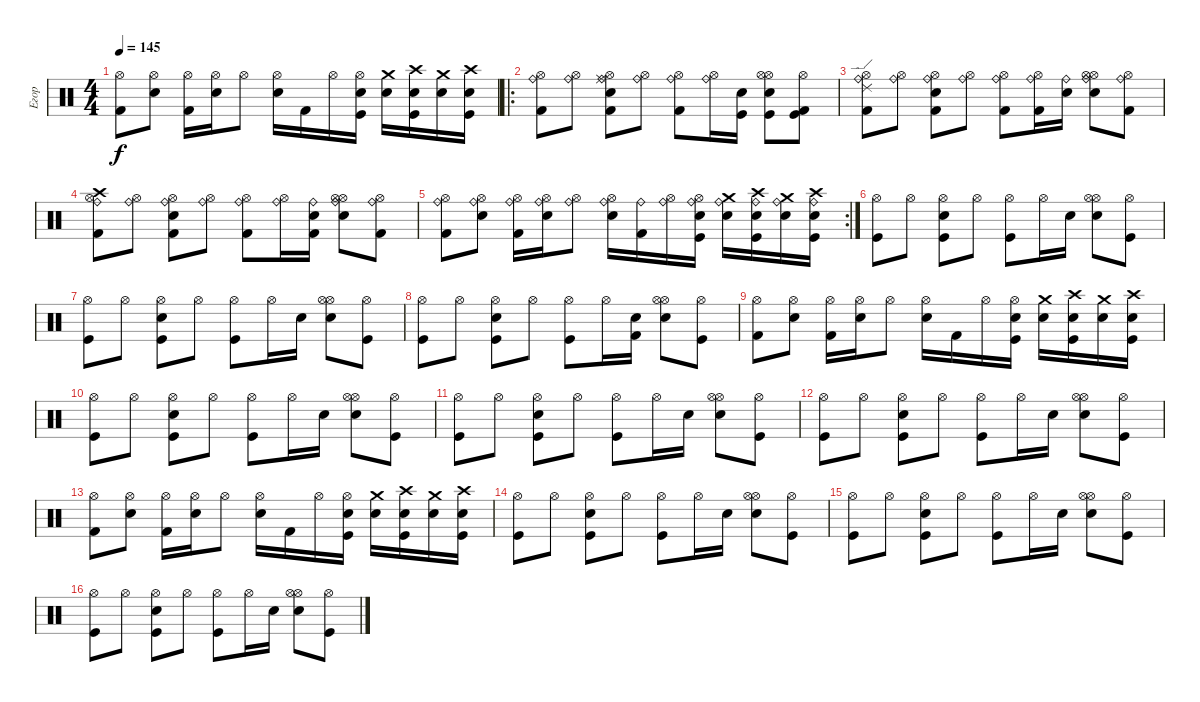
\track ("Егор" "Егор") {instrument percussion}
\staff {score}
\articulation defaults
\ts (4 4)
\tempo 145
\clef neutral
\ks c
("Hi-Hat (open)" "Kick (hit) 2").8{dy f} ("Hi-Hat (open)" "Electric Snare (hit)").8 ("Hi-Hat (open)" "Kick (hit) 2").16 ("Hi-Hat (open)" "Electric Snare (hit)").16 "Hi-Hat (open)".8 ("Hi-Hat (open)" "Electric Snare (hit)").16 "Kick (hit) 2".16 "Hi-Hat (open)".16 ("Hi-Hat (open)" "Electric Snare (hit)" "Kick (hit)").16 ("Crash medium (hit)" "Electric Snare (hit)").16 ("Crash high (hit)" "Electric Snare (hit)" "Kick (hit)").16 ("Crash medium (hit)" "Electric Snare (hit)").16 ("Crash high (hit)" "Electric Snare (hit)" "Kick (hit)").16 |
\ro
("Hi-Hat (open)" "Ride (bell)" "Kick (hit) 2").8 ("Hi-Hat (open)" "Ride (bell)").8 ("Hi-Hat (open)" "Ride (bell)" "Ride (middle)" "Electric Snare (hit)" "Kick (hit) 2").8 ("Hi-Hat (open)" "Ride (bell)").8 ("Hi-Hat (open)" "Ride (bell)" "Kick (hit) 2").8 ("Hi-Hat (open)" "Ride (bell)").16 ("Kick (hit)" "Electric Snare (hit)").16 ("Hi-Hat (open)" "Kick (hit)" "Electric Snare (hit)" "Hi-Hat (open)").8 ("Hi-Hat (open)" "Kick (hit)" "Kick (hit) 2").8 |
("Hi-Hat (open)" "Ride (edge) 2" "Ride (bell)" "Kick (hit) 2").8 ("Hi-Hat (open)" "Ride (bell)").8 ("Hi-Hat (open)" "Electric Snare (hit)" "Ride (bell)" "Kick (hit) 2").8 ("Hi-Hat (open)" "Ride (bell)").8 ("Hi-Hat (open)" "Ride (bell)" "Kick (hit) 2").8 ("Hi-Hat (open)" "Ride (bell)" "Kick (hit) 2").16 ("Ride (bell)" "Electric Snare (hit)").16 ("Hi-Hat (open)" "Ride (bell)" "Electric Snare (hit)" "Hi-Hat (open)").8 ("Hi-Hat (open)" "Ride (bell)" "Kick (hit) 2").8 |
("Hi-Hat (open)" "Crash high (hit)" "Ride (bell)" "Kick (hit) 2").8 ("Hi-Hat (open)" "Ride (bell)").8 ("Hi-Hat (open)" "Electric Snare (hit)" "Ride (bell)" "Kick (hit) 2").8 ("Hi-Hat (open)" "Ride (bell)").8 ("Hi-Hat (open)" "Ride (bell)" "Kick (hit) 2").8 ("Hi-Hat (open)" "Ride (bell)").16 ("Ride (bell)" "Electric Snare (hit)" "Kick (hit) 2").16 ("Hi-Hat (open)" "Ride (bell)" "Electric Snare (hit)" "Hi-Hat (open)").8 ("Hi-Hat (open)" "Ride (bell)" "Kick (hit) 2").8 |
\rc 2
("Hi-Hat (open)" "Ride (bell)" "Kick (hit) 2").8 ("Hi-Hat (open)" "Ride (bell)" "Electric Snare (hit)").8 ("Hi-Hat (open)" "Ride (bell)" "Kick (hit) 2").16 ("Hi-Hat (open)" "Ride (bell)" "Electric Snare (hit)").16 ("Hi-Hat (open)" "Ride (bell)").8 ("Hi-Hat (open)" "Ride (bell)" "Electric Snare (hit)").16 ("Ride (bell)" "Kick (hit) 2").16 ("Hi-Hat (open)" "Ride (bell)").16 ("Hi-Hat (open)" "Ride (bell)" "Electric Snare (hit)" "Kick (hit)").16 ("Crash medium (hit)" "Ride (bell)" "Electric Snare (hit)").16 ("Crash high (hit)" "Ride (bell)" "Electric Snare (hit)" "Kick (hit)").16 ("Crash medium (hit)" "Ride (bell)" "Electric Snare (hit)").16 ("Crash high (hit)" "Ride (bell)" "Electric Snare (hit)" "Kick (hit)").16 |
("Hi-Hat (open)" "Kick (hit)").8 "Hi-Hat (open)".8 ("Hi-Hat (open)" "Electric Snare (hit)" "Kick (hit)").8 "Hi-Hat (open)".8 ("Hi-Hat (open)" "Kick (hit)").8 "Hi-Hat (open)".16 "Electric Snare (hit)".16 ("Hi-Hat (open)" "Electric Snare (hit)" "Hi-Hat (open)").8 ("Hi-Hat (open)" "Kick (hit)").8 |
("Hi-Hat (open)" "Kick (hit)").8 "Hi-Hat (open)".8 ("Hi-Hat (open)" "Electric Snare (hit)" "Kick (hit)").8 "Hi-Hat (open)".8 ("Hi-Hat (open)" "Kick (hit)").8 "Hi-Hat (open)".16 "Electric Snare (hit)".16 ("Hi-Hat (open)" "Electric Snare (hit)" "Hi-Hat (open)").8 ("Hi-Hat (open)" "Kick (hit)").8 |
("Hi-Hat (open)" "Kick (hit)").8 "Hi-Hat (open)".8 ("Hi-Hat (open)" "Electric Snare (hit)" "Kick (hit)").8 "Hi-Hat (open)".8 ("Hi-Hat (open)" "Kick (hit)").8 "Hi-Hat (open)".16 ("Electric Snare (hit)" "Kick (hit) 2").16 ("Hi-Hat (open)" "Electric Snare (hit)" "Hi-Hat (open)").8 ("Hi-Hat (open)" "Kick (hit)").8 |
("Hi-Hat (open)" "Kick (hit) 2").8 ("Hi-Hat (open)" "Electric Snare (hit)").8 ("Hi-Hat (open)" "Kick (hit) 2").16 ("Hi-Hat (open)" "Electric Snare (hit)").16 "Hi-Hat (open)".8 ("Hi-Hat (open)" "Electric Snare (hit)").16 "Kick (hit) 2".16 "Hi-Hat (open)".16 ("Hi-Hat (open)" "Electric Snare (hit)" "Kick (hit)").16 ("Crash medium (hit)" "Electric Snare (hit)").16 ("Crash high (hit)" "Electric Snare (hit)" "Kick (hit)").16 ("Crash medium (hit)" "Electric Snare (hit)").16 ("Crash high (hit)" "Electric Snare (hit)" "Kick (hit)").16 |
("Hi-Hat (open)" "Kick (hit)").8 "Hi-Hat (open)".8 ("Hi-Hat (open)" "Electric Snare (hit)" "Kick (hit)").8 "Hi-Hat (open)".8 ("Hi-Hat (open)" "Kick (hit)").8 "Hi-Hat (open)".16 "Electric Snare (hit)".16 ("Hi-Hat (open)" "Electric Snare (hit)" "Hi-Hat (open)").8 ("Hi-Hat (open)" "Kick (hit)").8 |
("Hi-Hat (open)" "Kick (hit)").8 "Hi-Hat (open)".8 ("Hi-Hat (open)" "Electric Snare (hit)" "Kick (hit)").8 "Hi-Hat (open)".8 ("Hi-Hat (open)" "Kick (hit)").8 "Hi-Hat (open)".16 "Electric Snare (hit)".16 ("Hi-Hat (open)" "Electric Snare (hit)" "Hi-Hat (open)").8 ("Hi-Hat (open)" "Kick (hit)").8 |
("Hi-Hat (open)" "Kick (hit)").8 "Hi-Hat (open)".8 ("Hi-Hat (open)" "Electric Snare (hit)" "Kick (hit)").8 "Hi-Hat (open)".8 ("Hi-Hat (open)" "Kick (hit)").8 "Hi-Hat (open)".16 "Electric Snare (hit)".16 ("Hi-Hat (open)" "Electric Snare (hit)" "Hi-Hat (open)").8 ("Hi-Hat (open)" "Kick (hit)").8 |
("Hi-Hat (open)" "Kick (hit) 2").8 ("Hi-Hat (open)" "Electric Snare (hit)").8 ("Hi-Hat (open)" "Kick (hit) 2").16 ("Hi-Hat (open)" "Electric Snare (hit)").16 "Hi-Hat (open)".8 ("Hi-Hat (open)" "Electric Snare (hit)").16 "Kick (hit) 2".16 "Hi-Hat (open)".16 ("Hi-Hat (open)" "Electric Snare (hit)" "Kick (hit)").16 ("Crash medium (hit)" "Electric Snare (hit)").16 ("Crash high (hit)" "Electric Snare (hit)" "Kick (hit)").16 ("Crash medium (hit)" "Electric Snare (hit)").16 ("Crash high (hit)" "Electric Snare (hit)" "Kick (hit)").16 |
("Hi-Hat (open)" "Kick (hit)").8 "Hi-Hat (open)".8 ("Hi-Hat (open)" "Electric Snare (hit)" "Kick (hit)").8 "Hi-Hat (open)".8 ("Hi-Hat (open)" "Kick (hit)").8 "Hi-Hat (open)".16 "Electric Snare (hit)".16 ("Hi-Hat (open)" "Electric Snare (hit)" "Hi-Hat (open)").8 ("Hi-Hat (open)" "Kick (hit)").8 |
("Hi-Hat (open)" "Kick (hit)").8 "Hi-Hat (open)".8 ("Hi-Hat (open)" "Electric Snare (hit)" "Kick (hit)").8 "Hi-Hat (open)".8 ("Hi-Hat (open)" "Kick (hit)").8 "Hi-Hat (open)".16 "Electric Snare (hit)".16 ("Hi-Hat (open)" "Electric Snare (hit)" "Hi-Hat (open)").8 ("Hi-Hat (open)" "Kick (hit)").8 |
("Hi-Hat (open)" "Kick (hit)").8 "Hi-Hat (open)".8 ("Hi-Hat (open)" "Electric Snare (hit)" "Kick (hit)").8 "Hi-Hat (open)".8 ("Hi-Hat (open)" "Kick (hit)").8 "Hi-Hat (open)".16 "Electric Snare (hit)".16 ("Hi-Hat (open)" "Electric Snare (hit)" "Hi-Hat (open)").8 ("Hi-Hat (open)" "Kick (hit)").8
